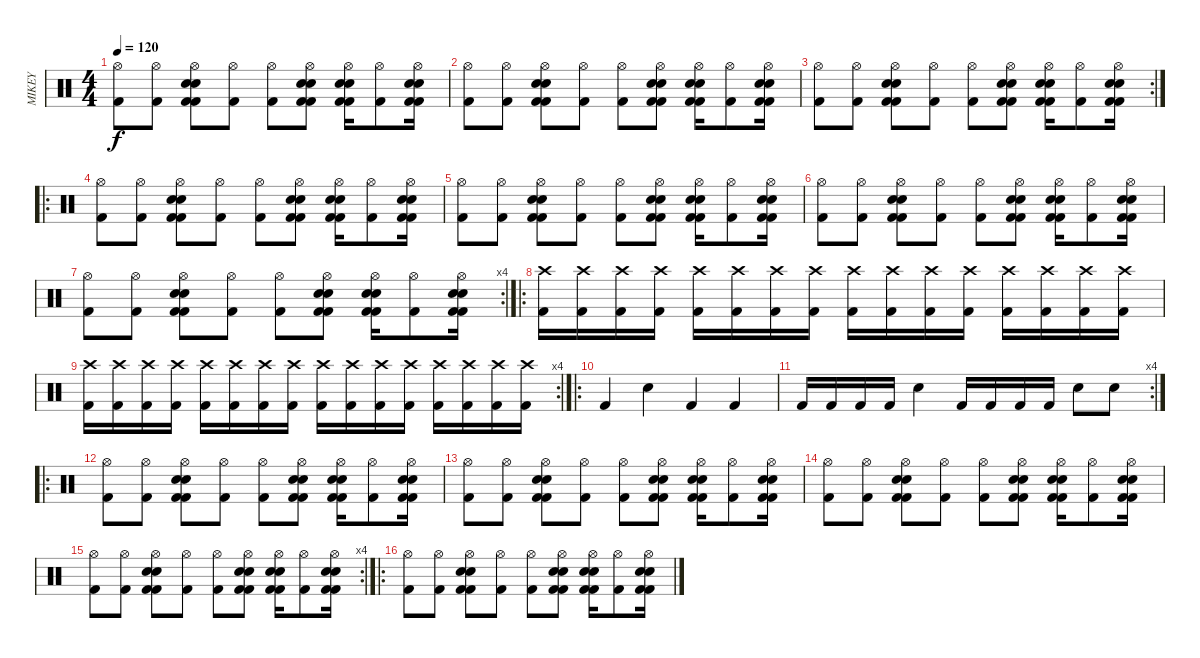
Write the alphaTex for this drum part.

\track ("MIKEY" "MIKEY") {instrument percussion}
\staff {score}
\articulation defaults
\ts (4 4)
\tempo 120
\clef neutral
\ks c
("Kick (hit) 2" "Hi-Hat (open)").8{dy f} ("Kick (hit) 2" "Hi-Hat (open)").8 ("Snare (hit) 2" "Kick (hit) 2" "Snare (hit) 2" "Kick (hit) 2" "Hi-Hat (open)").8 ("Kick (hit) 2" "Hi-Hat (open)").8 ("Kick (hit) 2" "Hi-Hat (open)").8 ("Snare (hit) 2" "Snare (hit) 2" "Kick (hit) 2" "Kick (hit) 2" "Hi-Hat (open)").8 ("Snare (hit) 2" "Snare (hit) 2" "Kick (hit) 2" "Kick (hit) 2" "Hi-Hat (open)").16 ("Kick (hit) 2" "Hi-Hat (open)").8 ("Snare (hit) 2" "Snare (hit) 2" "Kick (hit) 2" "Kick (hit) 2" "Hi-Hat (open)").16 |
("Kick (hit) 2" "Hi-Hat (open)").8 ("Kick (hit) 2" "Hi-Hat (open)").8 ("Snare (hit) 2" "Kick (hit) 2" "Snare (hit) 2" "Kick (hit) 2" "Hi-Hat (open)").8 ("Kick (hit) 2" "Hi-Hat (open)").8 ("Kick (hit) 2" "Hi-Hat (open)").8 ("Snare (hit) 2" "Snare (hit) 2" "Kick (hit) 2" "Kick (hit) 2" "Hi-Hat (open)").8 ("Snare (hit) 2" "Snare (hit) 2" "Kick (hit) 2" "Kick (hit) 2" "Hi-Hat (open)").16 ("Kick (hit) 2" "Hi-Hat (open)").8 ("Snare (hit) 2" "Snare (hit) 2" "Kick (hit) 2" "Kick (hit) 2" "Hi-Hat (open)").16 |
\rc 2
("Kick (hit) 2" "Hi-Hat (open)").8 ("Kick (hit) 2" "Hi-Hat (open)").8 ("Snare (hit) 2" "Kick (hit) 2" "Snare (hit) 2" "Kick (hit) 2" "Hi-Hat (open)").8 ("Kick (hit) 2" "Hi-Hat (open)").8 ("Kick (hit) 2" "Hi-Hat (open)").8 ("Snare (hit) 2" "Snare (hit) 2" "Kick (hit) 2" "Kick (hit) 2" "Hi-Hat (open)").8 ("Snare (hit) 2" "Snare (hit) 2" "Kick (hit) 2" "Kick (hit) 2" "Hi-Hat (open)").16 ("Kick (hit) 2" "Hi-Hat (open)").8 ("Snare (hit) 2" "Snare (hit) 2" "Kick (hit) 2" "Kick (hit) 2" "Hi-Hat (open)").16 |
\ro
("Kick (hit) 2" "Hi-Hat (open)").8 ("Kick (hit) 2" "Hi-Hat (open)").8 ("Snare (hit) 2" "Kick (hit) 2" "Snare (hit) 2" "Kick (hit) 2" "Hi-Hat (open)").8 ("Kick (hit) 2" "Hi-Hat (open)").8 ("Kick (hit) 2" "Hi-Hat (open)").8 ("Snare (hit) 2" "Snare (hit) 2" "Kick (hit) 2" "Kick (hit) 2" "Hi-Hat (open)").8 ("Snare (hit) 2" "Snare (hit) 2" "Kick (hit) 2" "Kick (hit) 2" "Hi-Hat (open)").16 ("Kick (hit) 2" "Hi-Hat (open)").8 ("Snare (hit) 2" "Snare (hit) 2" "Kick (hit) 2" "Kick (hit) 2" "Hi-Hat (open)").16 |
("Kick (hit) 2" "Hi-Hat (open)").8 ("Kick (hit) 2" "Hi-Hat (open)").8 ("Snare (hit) 2" "Kick (hit) 2" "Snare (hit) 2" "Kick (hit) 2" "Hi-Hat (open)").8 ("Kick (hit) 2" "Hi-Hat (open)").8 ("Kick (hit) 2" "Hi-Hat (open)").8 ("Snare (hit) 2" "Snare (hit) 2" "Kick (hit) 2" "Kick (hit) 2" "Hi-Hat (open)").8 ("Snare (hit) 2" "Snare (hit) 2" "Kick (hit) 2" "Kick (hit) 2" "Hi-Hat (open)").16 ("Kick (hit) 2" "Hi-Hat (open)").8 ("Snare (hit) 2" "Snare (hit) 2" "Kick (hit) 2" "Kick (hit) 2" "Hi-Hat (open)").16 |
("Kick (hit) 2" "Hi-Hat (open)").8 ("Kick (hit) 2" "Hi-Hat (open)").8 ("Snare (hit) 2" "Kick (hit) 2" "Snare (hit) 2" "Kick (hit) 2" "Hi-Hat (open)").8 ("Kick (hit) 2" "Hi-Hat (open)").8 ("Kick (hit) 2" "Hi-Hat (open)").8 ("Snare (hit) 2" "Snare (hit) 2" "Kick (hit) 2" "Kick (hit) 2" "Hi-Hat (open)").8 ("Snare (hit) 2" "Snare (hit) 2" "Kick (hit) 2" "Kick (hit) 2" "Hi-Hat (open)").16 ("Kick (hit) 2" "Hi-Hat (open)").8 ("Snare (hit) 2" "Snare (hit) 2" "Kick (hit) 2" "Kick (hit) 2" "Hi-Hat (open)").16 |
\rc 4
("Kick (hit) 2" "Hi-Hat (open)").8 ("Kick (hit) 2" "Hi-Hat (open)").8 ("Snare (hit) 2" "Kick (hit) 2" "Snare (hit) 2" "Kick (hit) 2" "Hi-Hat (open)").8 ("Kick (hit) 2" "Hi-Hat (open)").8 ("Kick (hit) 2" "Hi-Hat (open)").8 ("Snare (hit) 2" "Snare (hit) 2" "Kick (hit) 2" "Kick (hit) 2" "Hi-Hat (open)").8 ("Snare (hit) 2" "Snare (hit) 2" "Kick (hit) 2" "Kick (hit) 2" "Hi-Hat (open)").16 ("Kick (hit) 2" "Hi-Hat (open)").8 ("Snare (hit) 2" "Snare (hit) 2" "Kick (hit) 2" "Kick (hit) 2" "Hi-Hat (open)").16 |
\ro
("Kick (hit) 2" "Crash high (hit)").16 ("Kick (hit) 2" "Crash high (hit)").16 ("Kick (hit) 2" "Crash high (hit)").16 ("Kick (hit) 2" "Crash high (hit)").16 ("Kick (hit) 2" "Crash high (hit)").16 ("Kick (hit) 2" "Crash high (hit)").16 ("Kick (hit) 2" "Crash high (hit)").16 ("Kick (hit) 2" "Crash high (hit)").16 ("Kick (hit) 2" "Crash high (hit)").16 ("Kick (hit) 2" "Crash high (hit)").16 ("Kick (hit) 2" "Crash high (hit)").16 ("Kick (hit) 2" "Crash high (hit)").16 ("Kick (hit) 2" "Crash high (hit)").16 ("Kick (hit) 2" "Crash high (hit)").16 ("Kick (hit) 2" "Crash high (hit)").16 ("Kick (hit) 2" "Crash high (hit)").16 |
\rc 4
("Kick (hit) 2" "Crash high (hit)").16 ("Kick (hit) 2" "Crash high (hit)").16 ("Kick (hit) 2" "Crash high (hit)").16 ("Kick (hit) 2" "Crash high (hit)").16 ("Kick (hit) 2" "Crash high (hit)").16 ("Kick (hit) 2" "Crash high (hit)").16 ("Kick (hit) 2" "Crash high (hit)").16 ("Kick (hit) 2" "Crash high (hit)").16 ("Kick (hit) 2" "Crash high (hit)").16 ("Kick (hit) 2" "Crash high (hit)").16 ("Kick (hit) 2" "Crash high (hit)").16 ("Kick (hit) 2" "Crash high (hit)").16 ("Kick (hit) 2" "Crash high (hit)").16 ("Kick (hit) 2" "Crash high (hit)").16 ("Kick (hit) 2" "Crash high (hit)").16 ("Kick (hit) 2" "Crash high (hit)").16 |
\ro "Kick (hit) 2".4 "Snare (hit) 2".4 "Kick (hit) 2".4 "Kick (hit) 2".4
|
\rc 4 "Kick (hit) 2".16 "Kick (hit) 2".16 "Kick (hit) 2".16 "Kick (hit) 2".16 "Snare (hit) 2".4 "Kick (hit) 2".16 "Kick (hit) 2".16 "Kick (hit) 2".16 "Kick (hit) 2".16 "Snare (hit) 2".8 "Snare (hit) 2".8
|
\ro
("Kick (hit) 2" "Hi-Hat (open)").8 ("Kick (hit) 2" "Hi-Hat (open)").8 ("Snare (hit) 2" "Kick (hit) 2" "Snare (hit) 2" "Kick (hit) 2" "Hi-Hat (open)").8 ("Kick (hit) 2" "Hi-Hat (open)").8 ("Kick (hit) 2" "Hi-Hat (open)").8 ("Snare (hit) 2" "Snare (hit) 2" "Kick (hit) 2" "Kick (hit) 2" "Hi-Hat (open)").8 ("Snare (hit) 2" "Snare (hit) 2" "Kick (hit) 2" "Kick (hit) 2" "Hi-Hat (open)").16 ("Kick (hit) 2" "Hi-Hat (open)").8 ("Snare (hit) 2" "Snare (hit) 2" "Kick (hit) 2" "Kick (hit) 2" "Hi-Hat (open)").16 |
("Kick (hit) 2" "Hi-Hat (open)").8 ("Kick (hit) 2" "Hi-Hat (open)").8 ("Snare (hit) 2" "Kick (hit) 2" "Snare (hit) 2" "Kick (hit) 2" "Hi-Hat (open)").8 ("Kick (hit) 2" "Hi-Hat (open)").8 ("Kick (hit) 2" "Hi-Hat (open)").8 ("Snare (hit) 2" "Snare (hit) 2" "Kick (hit) 2" "Kick (hit) 2" "Hi-Hat (open)").8 ("Snare (hit) 2" "Snare (hit) 2" "Kick (hit) 2" "Kick (hit) 2" "Hi-Hat (open)").16 ("Kick (hit) 2" "Hi-Hat (open)").8 ("Snare (hit) 2" "Snare (hit) 2" "Kick (hit) 2" "Kick (hit) 2" "Hi-Hat (open)").16 |
("Kick (hit) 2" "Hi-Hat (open)").8 ("Kick (hit) 2" "Hi-Hat (open)").8 ("Snare (hit) 2" "Kick (hit) 2" "Snare (hit) 2" "Kick (hit) 2" "Hi-Hat (open)").8 ("Kick (hit) 2" "Hi-Hat (open)").8 ("Kick (hit) 2" "Hi-Hat (open)").8 ("Snare (hit) 2" "Snare (hit) 2" "Kick (hit) 2" "Kick (hit) 2" "Hi-Hat (open)").8 ("Snare (hit) 2" "Snare (hit) 2" "Kick (hit) 2" "Kick (hit) 2" "Hi-Hat (open)").16 ("Kick (hit) 2" "Hi-Hat (open)").8 ("Snare (hit) 2" "Snare (hit) 2" "Kick (hit) 2" "Kick (hit) 2" "Hi-Hat (open)").16 |
\rc 4
("Kick (hit) 2" "Hi-Hat (open)").8 ("Kick (hit) 2" "Hi-Hat (open)").8 ("Snare (hit) 2" "Kick (hit) 2" "Snare (hit) 2" "Kick (hit) 2" "Hi-Hat (open)").8 ("Kick (hit) 2" "Hi-Hat (open)").8 ("Kick (hit) 2" "Hi-Hat (open)").8 ("Snare (hit) 2" "Snare (hit) 2" "Kick (hit) 2" "Kick (hit) 2" "Hi-Hat (open)").8 ("Snare (hit) 2" "Snare (hit) 2" "Kick (hit) 2" "Kick (hit) 2" "Hi-Hat (open)").16 ("Kick (hit) 2" "Hi-Hat (open)").8 ("Snare (hit) 2" "Snare (hit) 2" "Kick (hit) 2" "Kick (hit) 2" "Hi-Hat (open)").16 |
\ro
("Kick (hit) 2" "Hi-Hat (open)").8 ("Kick (hit) 2" "Hi-Hat (open)").8 ("Snare (hit) 2" "Kick (hit) 2" "Snare (hit) 2" "Kick (hit) 2" "Hi-Hat (open)").8 ("Kick (hit) 2" "Hi-Hat (open)").8 ("Kick (hit) 2" "Hi-Hat (open)").8 ("Snare (hit) 2" "Snare (hit) 2" "Kick (hit) 2" "Kick (hit) 2" "Hi-Hat (open)").8 ("Snare (hit) 2" "Snare (hit) 2" "Kick (hit) 2" "Kick (hit) 2" "Hi-Hat (open)").16 ("Kick (hit) 2" "Hi-Hat (open)").8 ("Snare (hit) 2" "Snare (hit) 2" "Kick (hit) 2" "Kick (hit) 2" "Hi-Hat (open)").16
